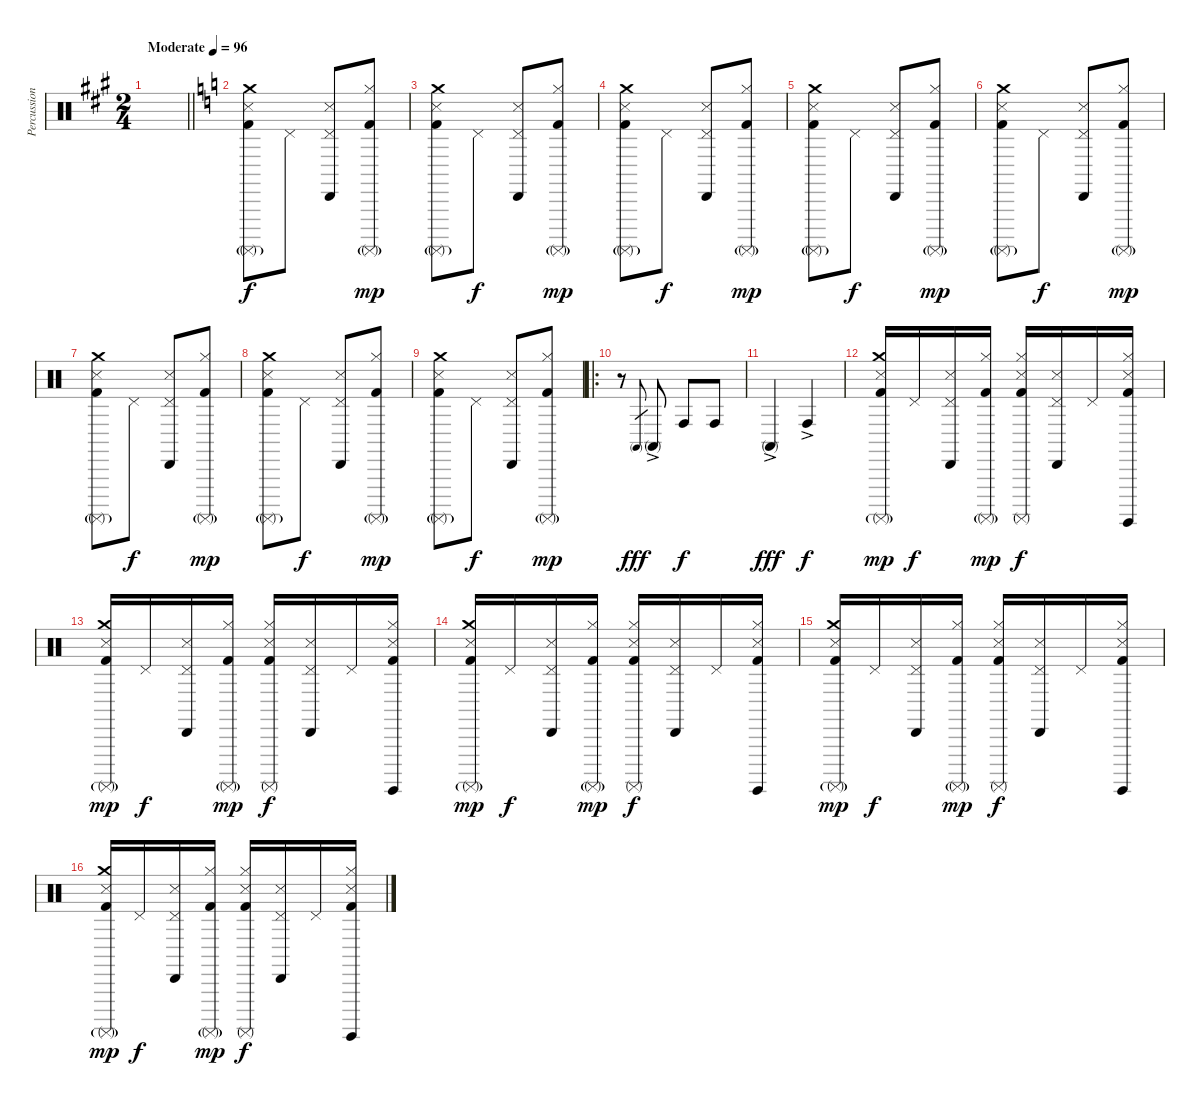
\track ("Percussion" "Percussion") {instrument percussion}
\staff {score}
\articulation defaults
\ts (2 4)
\tempo (96 "Moderate")
\clef neutral
\barLineRight lightlight
\ks a
|
\ks c
("Crash medium (hit)" "Snare (side stick) 3" "Surdo (mute)"{g} "Kick (hit) 2").8{volume 12} "Pedal Hi-Hat (hit)".8{dy f} ("Pedal Hi-Hat (hit)" "Cabasa (hit)" "Snare (side stick) 3").8 ("Hi-Hat (closed)" "Surdo (mute)"{g} "Kick (hit) 2").8{dy mp} |
("Crash medium (hit)" "Snare (side stick) 3" "Surdo (mute)"{g} "Kick (hit) 2").8{volume 12} "Pedal Hi-Hat (hit)".8{dy f} ("Pedal Hi-Hat (hit)" "Cabasa (hit)" "Snare (side stick) 3").8 ("Hi-Hat (closed)" "Surdo (mute)"{g} "Kick (hit) 2").8{dy mp} |
("Crash medium (hit)" "Snare (side stick) 3" "Surdo (mute)"{g} "Kick (hit) 2").8{volume 12} "Pedal Hi-Hat (hit)".8{dy f} ("Pedal Hi-Hat (hit)" "Cabasa (hit)" "Snare (side stick) 3").8 ("Hi-Hat (closed)" "Surdo (mute)"{g} "Kick (hit) 2").8{dy mp} |
("Crash medium (hit)" "Snare (side stick) 3" "Surdo (mute)"{g} "Kick (hit) 2").8{volume 12} "Pedal Hi-Hat (hit)".8{dy f} ("Pedal Hi-Hat (hit)" "Cabasa (hit)" "Snare (side stick) 3").8 ("Hi-Hat (closed)" "Surdo (mute)"{g} "Kick (hit) 2").8{dy mp} |
("Crash medium (hit)" "Snare (side stick) 3" "Surdo (mute)"{g} "Kick (hit) 2").8{volume 12} "Pedal Hi-Hat (hit)".8{dy f} ("Pedal Hi-Hat (hit)" "Cabasa (hit)" "Snare (side stick) 3").8 ("Hi-Hat (closed)" "Surdo (mute)"{g} "Kick (hit) 2").8{dy mp} |
("Crash medium (hit)" "Snare (side stick) 3" "Surdo (mute)"{g} "Kick (hit) 2").8{volume 12} "Pedal Hi-Hat (hit)".8{dy f} ("Pedal Hi-Hat (hit)" "Cabasa (hit)" "Snare (side stick) 3").8 ("Hi-Hat (closed)" "Surdo (mute)"{g} "Kick (hit) 2").8{dy mp} |
("Crash medium (hit)" "Snare (side stick) 3" "Surdo (mute)"{g} "Kick (hit) 2").8{volume 12} "Pedal Hi-Hat (hit)".8{dy f} ("Pedal Hi-Hat (hit)" "Cabasa (hit)" "Snare (side stick) 3").8 ("Hi-Hat (closed)" "Surdo (mute)"{g} "Kick (hit) 2").8{dy mp} |
("Crash medium (hit)" "Snare (side stick) 3" "Surdo (mute)"{g} "Kick (hit) 2").8{volume 12} "Pedal Hi-Hat (hit)".8{dy f} ("Pedal Hi-Hat (hit)" "Cabasa (hit)" "Snare (side stick) 3").8 ("Hi-Hat (closed)" "Surdo (mute)"{g} "Kick (hit) 2").8{dy mp} |
\ro
r.8{volume 16} "Conga high (mute)".8{gr dy fff} "Conga high (mute)"{ac}.8 "Conga high (hit)".8{dy f} "Conga high (hit)".8 |
"Conga high (mute)"{ac}.4{dy fff} "Conga high (hit)"{ac}.4{dy f} |
("Crash medium (hit)" "Snare (side stick) 3" "Surdo (mute)"{g} "Kick (hit) 2").16{dy mp volume 12} "Pedal Hi-Hat (hit)".16{dy f} ("Pedal Hi-Hat (hit)" "Cabasa (hit)" "Snare (side stick) 3").16 ("Hi-Hat (closed)" "Surdo (mute)"{g} "Kick (hit) 2").16{dy mp} ("Hi-Hat (closed)" "Snare (side stick) 3" "Surdo (mute)" "Kick (hit) 2").16{dy f} ("Pedal Hi-Hat (hit)" "Cabasa (hit)" "Snare (side stick) 3").16 "Pedal Hi-Hat (hit)".16 ("Hi-Hat (closed)" "Snare (side stick) 3" "Surdo (hit)" "Kick (hit) 2").16 |
("Crash medium (hit)" "Snare (side stick) 3" "Surdo (mute)"{g} "Kick (hit) 2").16{dy mp volume 12} "Pedal Hi-Hat (hit)".16{dy f} ("Pedal Hi-Hat (hit)" "Cabasa (hit)" "Snare (side stick) 3").16 ("Hi-Hat (closed)" "Surdo (mute)"{g} "Kick (hit) 2").16{dy mp} ("Hi-Hat (closed)" "Snare (side stick) 3" "Surdo (mute)" "Kick (hit) 2").16{dy f} ("Pedal Hi-Hat (hit)" "Cabasa (hit)" "Snare (side stick) 3").16 "Pedal Hi-Hat (hit)".16 ("Hi-Hat (closed)" "Snare (side stick) 3" "Surdo (hit)" "Kick (hit) 2").16 |
("Crash medium (hit)" "Snare (side stick) 3" "Surdo (mute)"{g} "Kick (hit) 2").16{dy mp volume 12} "Pedal Hi-Hat (hit)".16{dy f} ("Pedal Hi-Hat (hit)" "Cabasa (hit)" "Snare (side stick) 3").16 ("Hi-Hat (closed)" "Surdo (mute)"{g} "Kick (hit) 2").16{dy mp} ("Hi-Hat (closed)" "Snare (side stick) 3" "Surdo (mute)" "Kick (hit) 2").16{dy f} ("Pedal Hi-Hat (hit)" "Cabasa (hit)" "Snare (side stick) 3").16 "Pedal Hi-Hat (hit)".16 ("Hi-Hat (closed)" "Snare (side stick) 3" "Surdo (hit)" "Kick (hit) 2").16 |
("Crash medium (hit)" "Snare (side stick) 3" "Surdo (mute)"{g} "Kick (hit) 2").16{dy mp volume 12} "Pedal Hi-Hat (hit)".16{dy f} ("Pedal Hi-Hat (hit)" "Cabasa (hit)" "Snare (side stick) 3").16 ("Hi-Hat (closed)" "Surdo (mute)"{g} "Kick (hit) 2").16{dy mp} ("Hi-Hat (closed)" "Snare (side stick) 3" "Surdo (mute)" "Kick (hit) 2").16{dy f} ("Pedal Hi-Hat (hit)" "Cabasa (hit)" "Snare (side stick) 3").16 "Pedal Hi-Hat (hit)".16 ("Hi-Hat (closed)" "Snare (side stick) 3" "Surdo (hit)" "Kick (hit) 2").16 |
("Crash medium (hit)" "Snare (side stick) 3" "Surdo (mute)"{g} "Kick (hit) 2").16{dy mp volume 12} "Pedal Hi-Hat (hit)".16{dy f} ("Pedal Hi-Hat (hit)" "Cabasa (hit)" "Snare (side stick) 3").16 ("Hi-Hat (closed)" "Surdo (mute)"{g} "Kick (hit) 2").16{dy mp} ("Hi-Hat (closed)" "Snare (side stick) 3" "Surdo (mute)" "Kick (hit) 2").16{dy f} ("Pedal Hi-Hat (hit)" "Cabasa (hit)" "Snare (side stick) 3").16 "Pedal Hi-Hat (hit)".16 ("Hi-Hat (closed)" "Snare (side stick) 3" "Surdo (hit)" "Kick (hit) 2").16
